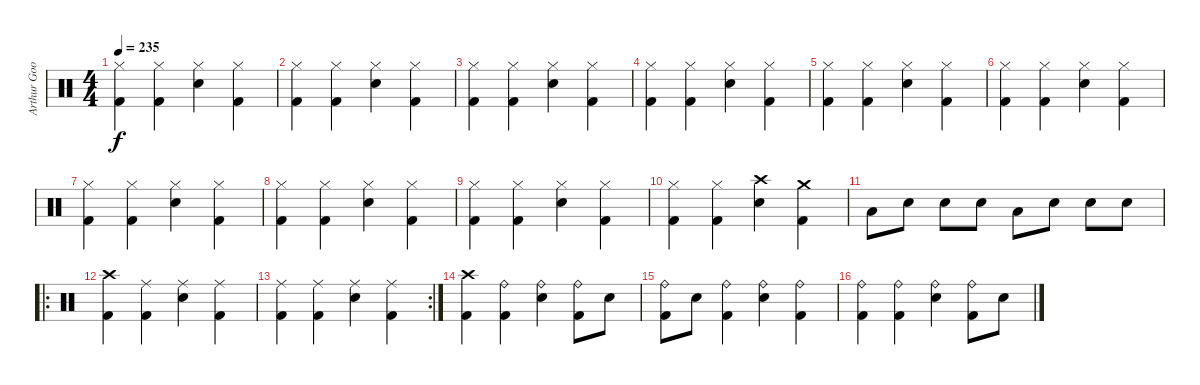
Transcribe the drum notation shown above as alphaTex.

\track ("Arthur Googy" "Arthur Goo") {instrument percussion}
\staff {score}
\articulation defaults
\ts (4 4)
\tempo 235
\clef neutral
\ks c
("Hi-Hat (closed)" "Kick (hit) 2").4{dy f} ("Hi-Hat (closed)" "Kick (hit) 2").4 ("Hi-Hat (closed)" "Electric Snare (hit)").4 ("Hi-Hat (closed)" "Kick (hit) 2").4 |
("Hi-Hat (closed)" "Kick (hit) 2").4 ("Hi-Hat (closed)" "Kick (hit) 2").4 ("Hi-Hat (closed)" "Electric Snare (hit)").4 ("Hi-Hat (closed)" "Kick (hit) 2").4 |
("Hi-Hat (closed)" "Kick (hit) 2").4 ("Hi-Hat (closed)" "Kick (hit) 2").4 ("Hi-Hat (closed)" "Electric Snare (hit)").4 ("Hi-Hat (closed)" "Kick (hit) 2").4 |
("Hi-Hat (closed)" "Kick (hit) 2").4 ("Hi-Hat (closed)" "Kick (hit) 2").4 ("Hi-Hat (closed)" "Electric Snare (hit)").4 ("Hi-Hat (closed)" "Kick (hit) 2").4 |
("Hi-Hat (closed)" "Kick (hit) 2").4 ("Hi-Hat (closed)" "Kick (hit) 2").4 ("Hi-Hat (closed)" "Electric Snare (hit)").4 ("Hi-Hat (closed)" "Kick (hit) 2").4 |
("Hi-Hat (closed)" "Kick (hit) 2").4 ("Hi-Hat (closed)" "Kick (hit) 2").4 ("Hi-Hat (closed)" "Electric Snare (hit)").4 ("Hi-Hat (closed)" "Kick (hit) 2").4 |
("Hi-Hat (closed)" "Kick (hit) 2").4 ("Hi-Hat (closed)" "Kick (hit) 2").4 ("Hi-Hat (closed)" "Electric Snare (hit)").4 ("Hi-Hat (closed)" "Kick (hit) 2").4 |
("Hi-Hat (closed)" "Kick (hit) 2").4 ("Hi-Hat (closed)" "Kick (hit) 2").4 ("Hi-Hat (closed)" "Electric Snare (hit)").4 ("Hi-Hat (closed)" "Kick (hit) 2").4 |
("Hi-Hat (closed)" "Kick (hit) 2").4 ("Hi-Hat (closed)" "Kick (hit) 2").4 ("Hi-Hat (closed)" "Electric Snare (hit)").4 ("Hi-Hat (closed)" "Kick (hit) 2").4 |
("Hi-Hat (closed)" "Kick (hit) 2").4 ("Hi-Hat (closed)" "Kick (hit) 2").4 ("Crash high (hit)" "Electric Snare (hit)").4 ("Crash medium (hit)" "Kick (hit) 2").4 |
"Low Tom (hit)".8 "Electric Snare (hit)".8 "Electric Snare (hit)".8 "Electric Snare (hit)".8 "Low Tom (hit)".8 "Electric Snare (hit)".8 "Electric Snare (hit)".8 "Electric Snare (hit)".8 |
\ro
("Crash high (hit)" "Kick (hit) 2").4 ("Ride (middle)" "Kick (hit) 2").4 ("Ride (middle)" "Electric Snare (hit)").4 ("Ride (middle)" "Kick (hit) 2").4 |
\rc 2
("Ride (middle)" "Kick (hit) 2").4 ("Ride (middle)" "Kick (hit) 2").4 ("Ride (middle)" "Electric Snare (hit)").4 ("Ride (middle)" "Kick (hit) 2").4 |
("Crash high (hit)" "Kick (hit) 2").4 ("Ride (bell)" "Kick (hit) 2").4 ("Ride (bell)" "Electric Snare (hit)").4 ("Ride (bell)" "Kick (hit) 2").8 "Electric Snare (hit)".8 |
("Ride (bell)" "Kick (hit) 2").8 "Electric Snare (hit)".8 ("Ride (bell)" "Kick (hit) 2").4 ("Ride (bell)" "Electric Snare (hit)").4 ("Ride (bell)" "Kick (hit) 2").4 |
("Ride (bell)" "Kick (hit) 2").4 ("Ride (bell)" "Kick (hit) 2").4 ("Ride (bell)" "Electric Snare (hit)").4 ("Ride (bell)" "Kick (hit) 2").8 "Electric Snare (hit)".8
